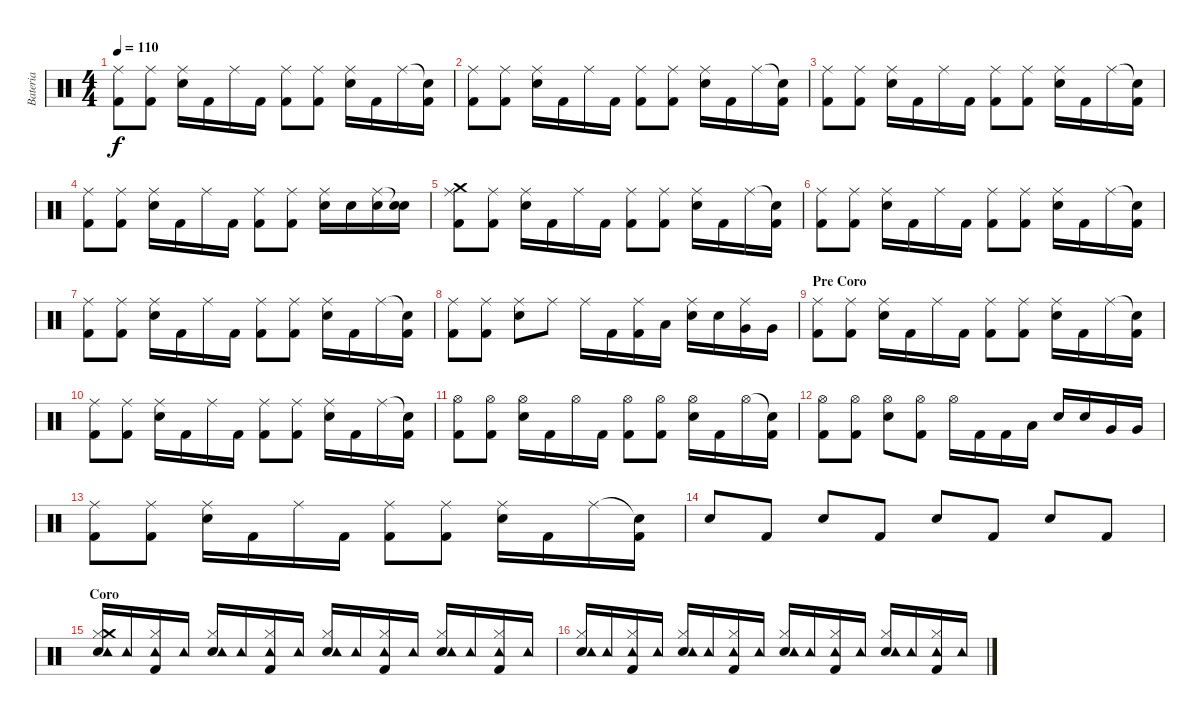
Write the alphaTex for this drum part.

\track ("Bateria" "Bateria") {instrument percussion}
\staff {score}
\articulation defaults
\ts (4 4)
\tempo 110
\clef neutral
\ks c
("Ride (middle)" "Kick (hit) 2").8{dy f} ("Ride (middle)" "Kick (hit) 2").8 ("Ride (middle)" "Snare (hit) 2").16 "Kick (hit) 2".16 "Ride (middle)".16 "Kick (hit) 2".16 ("Ride (middle)" "Kick (hit) 2").8 ("Ride (middle)" "Kick (hit) 2").8 ("Ride (middle)" "Snare (hit) 2").16 "Kick (hit) 2".16 "Ride (middle)".16 ("Snare (hit)"{t} "Kick (hit) 2").16 |
("Ride (middle)" "Kick (hit) 2").8 ("Ride (middle)" "Kick (hit) 2").8 ("Ride (middle)" "Snare (hit) 2").16 "Kick (hit) 2".16 "Ride (middle)".16 "Kick (hit) 2".16 ("Ride (middle)" "Kick (hit) 2").8 ("Ride (middle)" "Kick (hit) 2").8 ("Ride (middle)" "Snare (hit) 2").16 "Kick (hit) 2".16 "Ride (middle)".16 ("Snare (hit)"{t} "Kick (hit) 2").16 |
("Ride (middle)" "Kick (hit) 2").8 ("Ride (middle)" "Kick (hit) 2").8 ("Ride (middle)" "Snare (hit) 2").16 "Kick (hit) 2".16 "Ride (middle)".16 "Kick (hit) 2".16 ("Ride (middle)" "Kick (hit) 2").8 ("Ride (middle)" "Kick (hit) 2").8 ("Ride (middle)" "Snare (hit) 2").16 "Kick (hit) 2".16 "Ride (middle)".16 ("Snare (hit)"{t} "Kick (hit) 2").16 |
("Ride (middle)" "Kick (hit) 2").8 ("Ride (middle)" "Kick (hit) 2").8 ("Ride (middle)" "Snare (hit) 2").16 "Kick (hit) 2".16 "Ride (middle)".16 "Kick (hit) 2".16 ("Ride (middle)" "Kick (hit) 2").8 ("Ride (middle)" "Kick (hit) 2").8 ("Ride (middle)" "Snare (hit) 2").16 "Snare (hit) 2".16 ("Ride (middle)" "Snare (hit) 2").16 ("Snare (hit)"{t} "Snare (hit) 2").16 |
("Ride (middle)" "Kick (hit) 2" "Crash medium (hit)").8 ("Ride (middle)" "Kick (hit) 2").8 ("Ride (middle)" "Snare (hit) 2").16 "Kick (hit) 2".16 "Ride (middle)".16 "Kick (hit) 2".16 ("Ride (middle)" "Kick (hit) 2").8 ("Ride (middle)" "Kick (hit) 2").8 ("Ride (middle)" "Snare (hit) 2").16 "Kick (hit) 2".16 "Ride (middle)".16 ("Snare (hit)"{t} "Kick (hit) 2").16 |
("Ride (middle)" "Kick (hit) 2").8 ("Ride (middle)" "Kick (hit) 2").8 ("Ride (middle)" "Snare (hit) 2").16 "Kick (hit) 2".16 "Ride (middle)".16 "Kick (hit) 2".16 ("Ride (middle)" "Kick (hit) 2").8 ("Ride (middle)" "Kick (hit) 2").8 ("Ride (middle)" "Snare (hit) 2").16 "Kick (hit) 2".16 "Ride (middle)".16 ("Snare (hit)"{t} "Kick (hit) 2").16 |
("Ride (middle)" "Kick (hit) 2").8 ("Ride (middle)" "Kick (hit) 2").8 ("Ride (middle)" "Snare (hit) 2").16 "Kick (hit) 2".16 "Ride (middle)".16 "Kick (hit) 2".16 ("Ride (middle)" "Kick (hit) 2").8 ("Ride (middle)" "Kick (hit) 2").8 ("Ride (middle)" "Snare (hit) 2").16 "Kick (hit) 2".16 "Ride (middle)".16 ("Snare (hit)"{t} "Kick (hit) 2").16 |
("Ride (middle)" "Kick (hit) 2").8 ("Ride (middle)" "Kick (hit) 2").8 ("Ride (middle)" "Snare (hit) 2").8 "Ride (middle)".8 "Ride (middle)".16 "Kick (hit) 2".16 ("Ride (middle)" "Kick (hit) 2").16 "Low Tom (hit)".16 ("Ride (middle)" "Snare (hit) 2").16 "Snare (hit) 2".16 ("Ride (middle)" "Very Low Tom (hit)").16 "Very Low Tom (hit)".16 |
\section ("" "Pre Coro")
("Ride (middle)" "Kick (hit) 2").8 ("Ride (middle)" "Kick (hit) 2").8 ("Ride (middle)" "Snare (hit) 2").16 "Kick (hit) 2".16 "Ride (middle)".16 "Kick (hit) 2".16 ("Ride (middle)" "Kick (hit) 2").8 ("Ride (middle)" "Kick (hit) 2").8 ("Ride (middle)" "Snare (hit) 2").16 "Kick (hit) 2".16 "Ride (middle)".16 ("Snare (hit)"{t} "Kick (hit) 2").16 |
("Ride (middle)" "Kick (hit) 2").8 ("Ride (middle)" "Kick (hit) 2").8 ("Ride (middle)" "Snare (hit) 2").16 "Kick (hit) 2".16 "Ride (middle)".16 "Kick (hit) 2".16 ("Ride (middle)" "Kick (hit) 2").8 ("Ride (middle)" "Kick (hit) 2").8 ("Ride (middle)" "Snare (hit) 2").16 "Kick (hit) 2".16 "Ride (middle)".16 ("Snare (hit)"{t} "Kick (hit) 2").16 |
("Hi-Hat (open)" "Kick (hit) 2").8 ("Hi-Hat (open)" "Kick (hit) 2").8 ("Hi-Hat (open)" "Snare (hit) 2").16 "Kick (hit) 2".16 "Hi-Hat (open)".16 "Kick (hit) 2".16 ("Hi-Hat (open)" "Kick (hit) 2").8 ("Hi-Hat (open)" "Kick (hit) 2").8 ("Hi-Hat (open)" "Snare (hit) 2").16 "Kick (hit) 2".16 "Hi-Hat (open)".16 ("Snare (hit)"{t} "Kick (hit) 2").16 |
("Hi-Hat (open)" "Kick (hit) 2").8 ("Hi-Hat (open)" "Kick (hit) 2").8 ("Hi-Hat (open)" "Snare (hit) 2").8 ("Hi-Hat (open)" "Kick (hit) 2").8 "Hi-Hat (open)".16 "Kick (hit) 2".16 "Kick (hit) 2".16 "Low Tom (hit)".16 "Snare (hit) 2".16 "Snare (hit) 2".16 "Very Low Tom (hit)".16 "Very Low Tom (hit)".16 |
("Ride (middle)" "Kick (hit) 2").8 ("Ride (middle)" "Kick (hit) 2").8 ("Ride (middle)" "Snare (hit) 2").16 "Kick (hit) 2".16 "Ride (middle)".16 "Kick (hit) 2".16 ("Ride (middle)" "Kick (hit) 2").8 ("Ride (middle)" "Kick (hit) 2").8 ("Ride (middle)" "Snare (hit) 2").16 "Kick (hit) 2".16 "Ride (middle)".16 ("Snare (hit)"{t} "Kick (hit) 2").16 |
"Snare (hit) 2".8 "Kick (hit) 2".8 "Snare (hit) 2".8 "Kick (hit) 2".8 "Snare (hit) 2".8 "Kick (hit) 2".8 "Snare (hit) 2".8 "Kick (hit) 2".8 |
\section ("" "Coro")
("Hi-Hat (closed)" "Snare (hit) 2" "Crash medium (hit)" "Tambourine (hit)").16 "Tambourine (hit)".16 ("Hi-Hat (closed)" "Kick (hit) 2" "Tambourine (hit)").16 "Tambourine (hit)".16 ("Hi-Hat (closed)" "Snare (hit) 2" "Tambourine (hit)").16 "Tambourine (hit)".16 ("Hi-Hat (closed)" "Kick (hit) 2" "Tambourine (hit)").16 "Tambourine (hit)".16 ("Hi-Hat (closed)" "Snare (hit) 2" "Tambourine (hit)").16 "Tambourine (hit)".16 ("Hi-Hat (closed)" "Kick (hit) 2" "Tambourine (hit)").16 "Tambourine (hit)".16 ("Hi-Hat (closed)" "Snare (hit) 2" "Tambourine (hit)").16 "Tambourine (hit)".16 ("Hi-Hat (closed)" "Kick (hit) 2" "Tambourine (hit)").16 "Tambourine (hit)".16 |
("Hi-Hat (closed)" "Snare (hit) 2" "Tambourine (hit)").16 "Tambourine (hit)".16 ("Hi-Hat (closed)" "Kick (hit) 2" "Tambourine (hit)").16 "Tambourine (hit)".16 ("Hi-Hat (closed)" "Snare (hit) 2" "Tambourine (hit)").16 "Tambourine (hit)".16 ("Hi-Hat (closed)" "Kick (hit) 2" "Tambourine (hit)").16 "Tambourine (hit)".16 ("Hi-Hat (closed)" "Snare (hit) 2" "Tambourine (hit)").16 "Tambourine (hit)".16 ("Hi-Hat (closed)" "Kick (hit) 2" "Tambourine (hit)").16 "Tambourine (hit)".16 ("Hi-Hat (closed)" "Snare (hit) 2" "Tambourine (hit)").16 "Tambourine (hit)".16 ("Hi-Hat (closed)" "Kick (hit) 2" "Tambourine (hit)").16 "Tambourine (hit)".16
